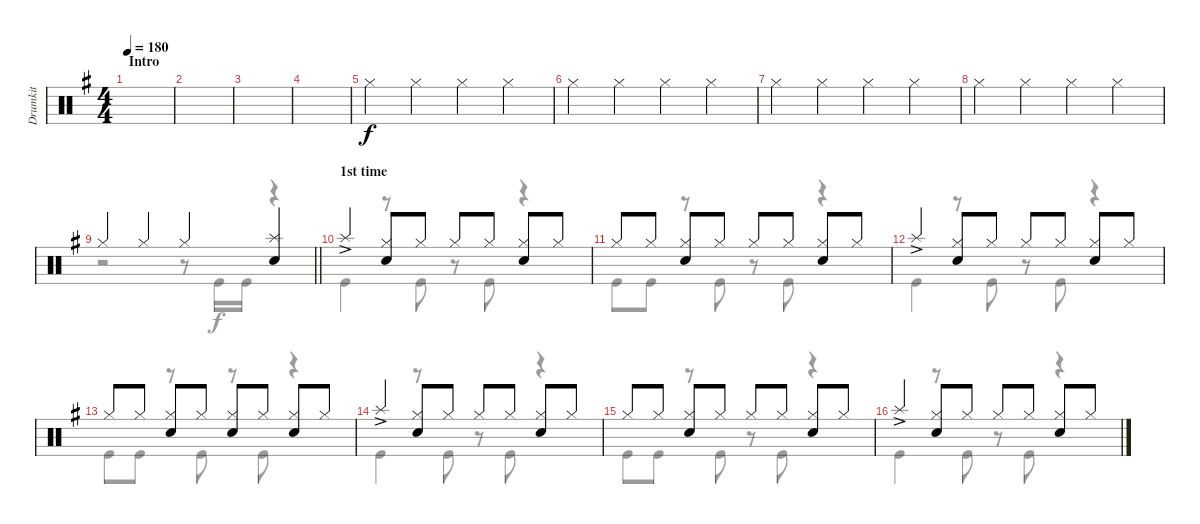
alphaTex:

\track ("Drumkit" "Drumkit") {instrument percussion}
\staff {score}
\articulation defaults
\voice
\ts (4 4)
\section ("" "Intro")
\tempo 180
\clef neutral
\ks g
|
|
|
|
"Hi-Hat (closed)".4 "Hi-Hat (closed)".4 "Hi-Hat (closed)".4 "Hi-Hat (closed)".4 |
"Hi-Hat (closed)".4 "Hi-Hat (closed)".4 "Hi-Hat (closed)".4 "Hi-Hat (closed)".4 |
"Hi-Hat (closed)".4 "Hi-Hat (closed)".4 "Hi-Hat (closed)".4 "Hi-Hat (closed)".4 |
"Hi-Hat (closed)".4 "Hi-Hat (closed)".4 "Hi-Hat (closed)".4 "Hi-Hat (closed)".4 |
\barLineRight lightlight "Hi-Hat (closed)".4 "Hi-Hat (closed)".4 "Hi-Hat (closed)".4
("Splash (hit)" "Snare (hit) 2").4 |
\section ("" "1st time")
"Splash (hit)"{ac}.4 ("Snare (hit) 2" "Hi-Hat (closed)").8 "Hi-Hat (closed)".8 "Hi-Hat (closed)".8 "Hi-Hat (closed)".8 ("Hi-Hat (closed)" "Snare (hit) 2").8 "Hi-Hat (closed)".8 |
"Hi-Hat (closed)".8 "Hi-Hat (closed)".8 ("Hi-Hat (closed)" "Snare (hit) 2").8 "Hi-Hat (closed)".8 "Hi-Hat (closed)".8 "Hi-Hat (closed)".8 ("Hi-Hat (closed)" "Snare (hit) 2").8 "Hi-Hat (closed)".8 |
"Splash (hit)"{ac}.4 ("Snare (hit) 2" "Hi-Hat (closed)").8 "Hi-Hat (closed)".8 "Hi-Hat (closed)".8 "Hi-Hat (closed)".8 ("Hi-Hat (closed)" "Snare (hit) 2").8 "Hi-Hat (closed)".8 |
"Hi-Hat (closed)".8 "Hi-Hat (closed)".8 ("Hi-Hat (closed)" "Snare (hit) 2").8 "Hi-Hat (closed)".8 ("Hi-Hat (closed)" "Snare (hit) 2").8 "Hi-Hat (closed)".8 ("Hi-Hat (closed)" "Snare (hit) 2").8 "Hi-Hat (closed)".8 |
"Splash (hit)"{ac}.4 ("Snare (hit) 2" "Hi-Hat (closed)").8 "Hi-Hat (closed)".8 "Hi-Hat (closed)".8 "Hi-Hat (closed)".8 ("Hi-Hat (closed)" "Snare (hit) 2").8 "Hi-Hat (closed)".8 |
"Hi-Hat (closed)".8 "Hi-Hat (closed)".8 ("Hi-Hat (closed)" "Snare (hit) 2").8 "Hi-Hat (closed)".8 "Hi-Hat (closed)".8 "Hi-Hat (closed)".8 ("Hi-Hat (closed)" "Snare (hit) 2").8 "Hi-Hat (closed)".8 |
"Splash (hit)"{ac}.4 ("Snare (hit) 2" "Hi-Hat (closed)").8 "Hi-Hat (closed)".8 "Hi-Hat (closed)".8 "Hi-Hat (closed)".8 ("Hi-Hat (closed)" "Snare (hit) 2").8 "Hi-Hat (closed)".8
\voice
\clef neutral
\ottava regular
\simile none
\ks g
|
|
|
|
|
|
|
|
\barLineRight lightlight
r.2 r.8 "Kick (hit)".16 "Kick (hit)".16 r.4 |
"Kick (hit)".4 r.8 "Kick (hit)".8 r.8 "Kick (hit)".8 r.4 |
"Kick (hit)".8 "Kick (hit)".8 r.8 "Kick (hit)".8 r.8 "Kick (hit)".8 r.4 |
"Kick (hit)".4 r.8 "Kick (hit)".8 r.8 "Kick (hit)".8 r.4 |
"Kick (hit)".8 "Kick (hit)".8 r.8 "Kick (hit)".8 r.8 "Kick (hit)".8 r.4 |
"Kick (hit)".4 r.8 "Kick (hit)".8 r.8 "Kick (hit)".8 r.4 |
"Kick (hit)".8 "Kick (hit)".8 r.8 "Kick (hit)".8 r.8 "Kick (hit)".8 r.4 |
"Kick (hit)".4 r.8 "Kick (hit)".8 r.8 "Kick (hit)".8 r.4
